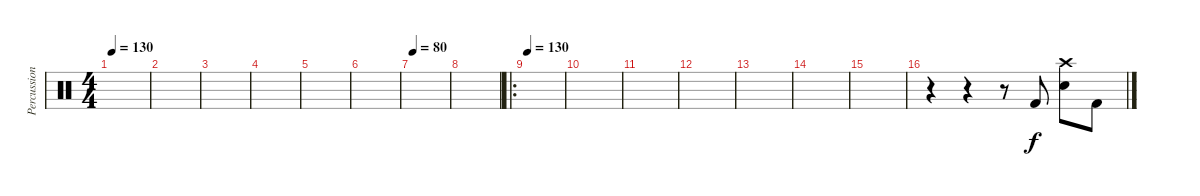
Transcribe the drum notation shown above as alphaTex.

\track ("Percussion" "Percussion") {instrument percussion}
\staff {score}
\articulation defaults
\ts (4 4)
\tempo 130
\tempo 120
\tempo 130
\clef neutral
\ks c
|
|
|
|
|
|
\tempo 80
|
|
\ro
\tempo 130
|
|
|
|
|
|
|
r.4 r.4 r.8 "Kick (hit) 2".8 ("Snare (hit) 2" "Crash high (hit)").8 "Kick (hit) 2".8
